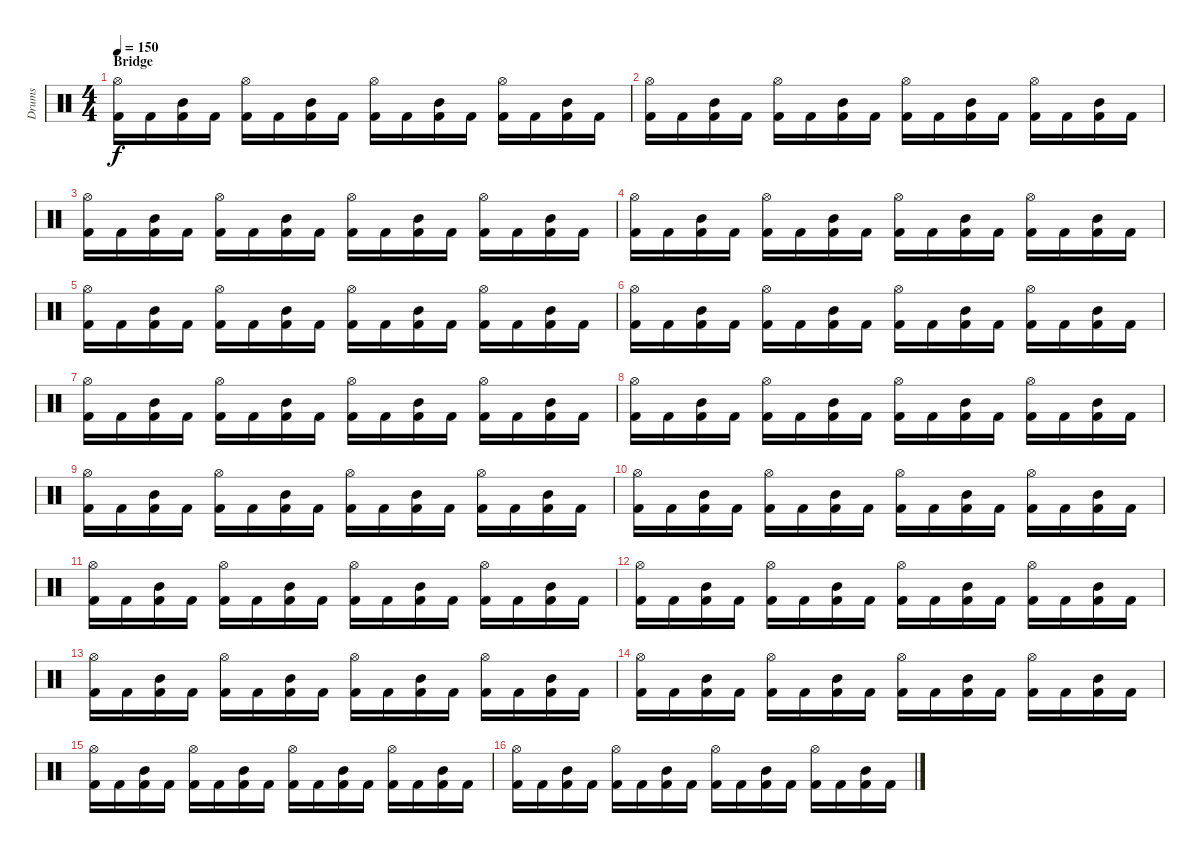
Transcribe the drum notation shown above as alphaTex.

\track ("Drums" "Drums") {instrument percussion}
\staff {score}
\articulation defaults
\ts (4 4)
\section ("" "Bridge")
\tempo 150
\clef neutral
\ks c
("Kick (hit) 2" "Hi-Hat (open)").16{dy f} "Kick (hit) 2".16 ("Kick (hit) 2" "Mid Tom (hit)").16 "Kick (hit) 2".16 ("Kick (hit) 2" "Hi-Hat (open)").16 "Kick (hit) 2".16 ("Kick (hit) 2" "Mid Tom (hit)").16 "Kick (hit) 2".16 ("Kick (hit) 2" "Hi-Hat (open)").16 "Kick (hit) 2".16 ("Kick (hit) 2" "Mid Tom (hit)").16 "Kick (hit) 2".16 ("Kick (hit) 2" "Hi-Hat (open)").16 "Kick (hit) 2".16 ("Kick (hit) 2" "Mid Tom (hit)").16 "Kick (hit) 2".16 |
("Kick (hit) 2" "Hi-Hat (open)").16 "Kick (hit) 2".16 ("Kick (hit) 2" "Mid Tom (hit)").16 "Kick (hit) 2".16 ("Kick (hit) 2" "Hi-Hat (open)").16 "Kick (hit) 2".16 ("Kick (hit) 2" "Mid Tom (hit)").16 "Kick (hit) 2".16 ("Kick (hit) 2" "Hi-Hat (open)").16 "Kick (hit) 2".16 ("Kick (hit) 2" "Mid Tom (hit)").16 "Kick (hit) 2".16 ("Kick (hit) 2" "Hi-Hat (open)").16 "Kick (hit) 2".16 ("Kick (hit) 2" "Mid Tom (hit)").16 "Kick (hit) 2".16 |
("Kick (hit) 2" "Hi-Hat (open)").16 "Kick (hit) 2".16 ("Kick (hit) 2" "Mid Tom (hit)").16 "Kick (hit) 2".16 ("Kick (hit) 2" "Hi-Hat (open)").16 "Kick (hit) 2".16 ("Kick (hit) 2" "Mid Tom (hit)").16 "Kick (hit) 2".16 ("Kick (hit) 2" "Hi-Hat (open)").16 "Kick (hit) 2".16 ("Kick (hit) 2" "Mid Tom (hit)").16 "Kick (hit) 2".16 ("Kick (hit) 2" "Hi-Hat (open)").16 "Kick (hit) 2".16 ("Kick (hit) 2" "Mid Tom (hit)").16 "Kick (hit) 2".16 |
("Kick (hit) 2" "Hi-Hat (open)").16 "Kick (hit) 2".16 ("Kick (hit) 2" "Mid Tom (hit)").16 "Kick (hit) 2".16 ("Kick (hit) 2" "Hi-Hat (open)").16 "Kick (hit) 2".16 ("Kick (hit) 2" "Mid Tom (hit)").16 "Kick (hit) 2".16 ("Kick (hit) 2" "Hi-Hat (open)").16 "Kick (hit) 2".16 ("Kick (hit) 2" "Mid Tom (hit)").16 "Kick (hit) 2".16 ("Kick (hit) 2" "Hi-Hat (open)").16 "Kick (hit) 2".16 ("Kick (hit) 2" "Mid Tom (hit)").16 "Kick (hit) 2".16 |
("Kick (hit) 2" "Hi-Hat (open)").16 "Kick (hit) 2".16 ("Kick (hit) 2" "Mid Tom (hit)").16 "Kick (hit) 2".16 ("Kick (hit) 2" "Hi-Hat (open)").16 "Kick (hit) 2".16 ("Kick (hit) 2" "Mid Tom (hit)").16 "Kick (hit) 2".16 ("Kick (hit) 2" "Hi-Hat (open)").16 "Kick (hit) 2".16 ("Kick (hit) 2" "Mid Tom (hit)").16 "Kick (hit) 2".16 ("Kick (hit) 2" "Hi-Hat (open)").16 "Kick (hit) 2".16 ("Kick (hit) 2" "Mid Tom (hit)").16 "Kick (hit) 2".16 |
("Kick (hit) 2" "Hi-Hat (open)").16 "Kick (hit) 2".16 ("Kick (hit) 2" "Mid Tom (hit)").16 "Kick (hit) 2".16 ("Kick (hit) 2" "Hi-Hat (open)").16 "Kick (hit) 2".16 ("Kick (hit) 2" "Mid Tom (hit)").16 "Kick (hit) 2".16 ("Kick (hit) 2" "Hi-Hat (open)").16 "Kick (hit) 2".16 ("Kick (hit) 2" "Mid Tom (hit)").16 "Kick (hit) 2".16 ("Kick (hit) 2" "Hi-Hat (open)").16 "Kick (hit) 2".16 ("Kick (hit) 2" "Mid Tom (hit)").16 "Kick (hit) 2".16 |
("Kick (hit) 2" "Hi-Hat (open)").16 "Kick (hit) 2".16 ("Kick (hit) 2" "Mid Tom (hit)").16 "Kick (hit) 2".16 ("Kick (hit) 2" "Hi-Hat (open)").16 "Kick (hit) 2".16 ("Kick (hit) 2" "Mid Tom (hit)").16 "Kick (hit) 2".16 ("Kick (hit) 2" "Hi-Hat (open)").16 "Kick (hit) 2".16 ("Kick (hit) 2" "Mid Tom (hit)").16 "Kick (hit) 2".16 ("Kick (hit) 2" "Hi-Hat (open)").16 "Kick (hit) 2".16 ("Kick (hit) 2" "Mid Tom (hit)").16 "Kick (hit) 2".16 |
("Kick (hit) 2" "Hi-Hat (open)").16 "Kick (hit) 2".16 ("Kick (hit) 2" "Mid Tom (hit)").16 "Kick (hit) 2".16 ("Kick (hit) 2" "Hi-Hat (open)").16 "Kick (hit) 2".16 ("Kick (hit) 2" "Mid Tom (hit)").16 "Kick (hit) 2".16 ("Kick (hit) 2" "Hi-Hat (open)").16 "Kick (hit) 2".16 ("Kick (hit) 2" "Mid Tom (hit)").16 "Kick (hit) 2".16 ("Kick (hit) 2" "Hi-Hat (open)").16 "Kick (hit) 2".16 ("Kick (hit) 2" "Mid Tom (hit)").16 "Kick (hit) 2".16 |
("Kick (hit) 2" "Hi-Hat (open)").16 "Kick (hit) 2".16 ("Kick (hit) 2" "Mid Tom (hit)").16 "Kick (hit) 2".16 ("Kick (hit) 2" "Hi-Hat (open)").16 "Kick (hit) 2".16 ("Kick (hit) 2" "Mid Tom (hit)").16 "Kick (hit) 2".16 ("Kick (hit) 2" "Hi-Hat (open)").16 "Kick (hit) 2".16 ("Kick (hit) 2" "Mid Tom (hit)").16 "Kick (hit) 2".16 ("Kick (hit) 2" "Hi-Hat (open)").16 "Kick (hit) 2".16 ("Kick (hit) 2" "Mid Tom (hit)").16 "Kick (hit) 2".16 |
("Kick (hit) 2" "Hi-Hat (open)").16 "Kick (hit) 2".16 ("Kick (hit) 2" "Mid Tom (hit)").16 "Kick (hit) 2".16 ("Kick (hit) 2" "Hi-Hat (open)").16 "Kick (hit) 2".16 ("Kick (hit) 2" "Mid Tom (hit)").16 "Kick (hit) 2".16 ("Kick (hit) 2" "Hi-Hat (open)").16 "Kick (hit) 2".16 ("Kick (hit) 2" "Mid Tom (hit)").16 "Kick (hit) 2".16 ("Kick (hit) 2" "Hi-Hat (open)").16 "Kick (hit) 2".16 ("Kick (hit) 2" "Mid Tom (hit)").16 "Kick (hit) 2".16 |
("Kick (hit) 2" "Hi-Hat (open)").16 "Kick (hit) 2".16 ("Kick (hit) 2" "Mid Tom (hit)").16 "Kick (hit) 2".16 ("Kick (hit) 2" "Hi-Hat (open)").16 "Kick (hit) 2".16 ("Kick (hit) 2" "Mid Tom (hit)").16 "Kick (hit) 2".16 ("Kick (hit) 2" "Hi-Hat (open)").16 "Kick (hit) 2".16 ("Kick (hit) 2" "Mid Tom (hit)").16 "Kick (hit) 2".16 ("Kick (hit) 2" "Hi-Hat (open)").16 "Kick (hit) 2".16 ("Kick (hit) 2" "Mid Tom (hit)").16 "Kick (hit) 2".16 |
("Kick (hit) 2" "Hi-Hat (open)").16 "Kick (hit) 2".16 ("Kick (hit) 2" "Mid Tom (hit)").16 "Kick (hit) 2".16 ("Kick (hit) 2" "Hi-Hat (open)").16 "Kick (hit) 2".16 ("Kick (hit) 2" "Mid Tom (hit)").16 "Kick (hit) 2".16 ("Kick (hit) 2" "Hi-Hat (open)").16 "Kick (hit) 2".16 ("Kick (hit) 2" "Mid Tom (hit)").16 "Kick (hit) 2".16 ("Kick (hit) 2" "Hi-Hat (open)").16 "Kick (hit) 2".16 ("Kick (hit) 2" "Mid Tom (hit)").16 "Kick (hit) 2".16 |
("Kick (hit) 2" "Hi-Hat (open)").16 "Kick (hit) 2".16 ("Kick (hit) 2" "Mid Tom (hit)").16 "Kick (hit) 2".16 ("Kick (hit) 2" "Hi-Hat (open)").16 "Kick (hit) 2".16 ("Kick (hit) 2" "Mid Tom (hit)").16 "Kick (hit) 2".16 ("Kick (hit) 2" "Hi-Hat (open)").16 "Kick (hit) 2".16 ("Kick (hit) 2" "Mid Tom (hit)").16 "Kick (hit) 2".16 ("Kick (hit) 2" "Hi-Hat (open)").16 "Kick (hit) 2".16 ("Kick (hit) 2" "Mid Tom (hit)").16 "Kick (hit) 2".16 |
("Kick (hit) 2" "Hi-Hat (open)").16 "Kick (hit) 2".16 ("Kick (hit) 2" "Mid Tom (hit)").16 "Kick (hit) 2".16 ("Kick (hit) 2" "Hi-Hat (open)").16 "Kick (hit) 2".16 ("Kick (hit) 2" "Mid Tom (hit)").16 "Kick (hit) 2".16 ("Kick (hit) 2" "Hi-Hat (open)").16 "Kick (hit) 2".16 ("Kick (hit) 2" "Mid Tom (hit)").16 "Kick (hit) 2".16 ("Kick (hit) 2" "Hi-Hat (open)").16 "Kick (hit) 2".16 ("Kick (hit) 2" "Mid Tom (hit)").16 "Kick (hit) 2".16 |
("Kick (hit) 2" "Hi-Hat (open)").16 "Kick (hit) 2".16 ("Kick (hit) 2" "Mid Tom (hit)").16 "Kick (hit) 2".16 ("Kick (hit) 2" "Hi-Hat (open)").16 "Kick (hit) 2".16 ("Kick (hit) 2" "Mid Tom (hit)").16 "Kick (hit) 2".16 ("Kick (hit) 2" "Hi-Hat (open)").16 "Kick (hit) 2".16 ("Kick (hit) 2" "Mid Tom (hit)").16 "Kick (hit) 2".16 ("Kick (hit) 2" "Hi-Hat (open)").16 "Kick (hit) 2".16 ("Kick (hit) 2" "Mid Tom (hit)").16 "Kick (hit) 2".16 |
("Kick (hit) 2" "Hi-Hat (open)").16 "Kick (hit) 2".16 ("Kick (hit) 2" "Mid Tom (hit)").16 "Kick (hit) 2".16 ("Kick (hit) 2" "Hi-Hat (open)").16 "Kick (hit) 2".16 ("Kick (hit) 2" "Mid Tom (hit)").16 "Kick (hit) 2".16 ("Kick (hit) 2" "Hi-Hat (open)").16 "Kick (hit) 2".16 ("Kick (hit) 2" "Mid Tom (hit)").16 "Kick (hit) 2".16 ("Kick (hit) 2" "Hi-Hat (open)").16 "Kick (hit) 2".16 ("Kick (hit) 2" "Mid Tom (hit)").16 "Kick (hit) 2".16
